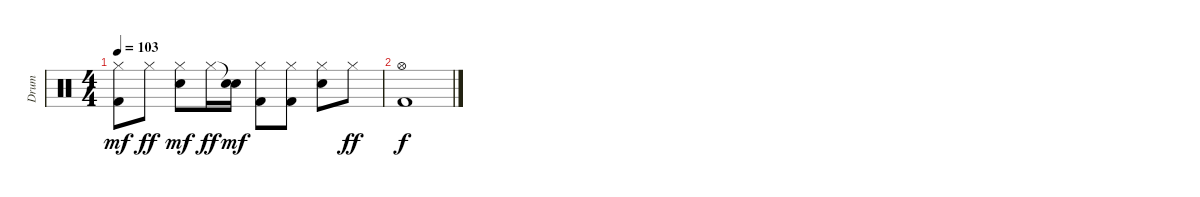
\track ("Drum" "Drum") {instrument percussion}
\staff {score}
\articulation defaults
\ts (4 4)
\tempo 103
\clef neutral
\ks c
("Hi-Hat (closed)" "Kick (hit) 2").8{dy mf} "Hi-Hat (closed)".8{dy ff} ("Hi-Hat (closed)" "Electric Snare (hit)").8{dy mf} "Hi-Hat (closed)".16{dy ff} ("Snare (hit)"{t} "Electric Snare (hit)").16{dy mf} ("Hi-Hat (closed)" "Kick (hit) 2").8 ("Hi-Hat (closed)" "Kick (hit) 2").8 ("Hi-Hat (closed)" "Electric Snare (hit)").8 "Hi-Hat (closed)".8{dy ff} |
("Hi-Hat (open)" "Kick (hit) 2").1{dy f}
